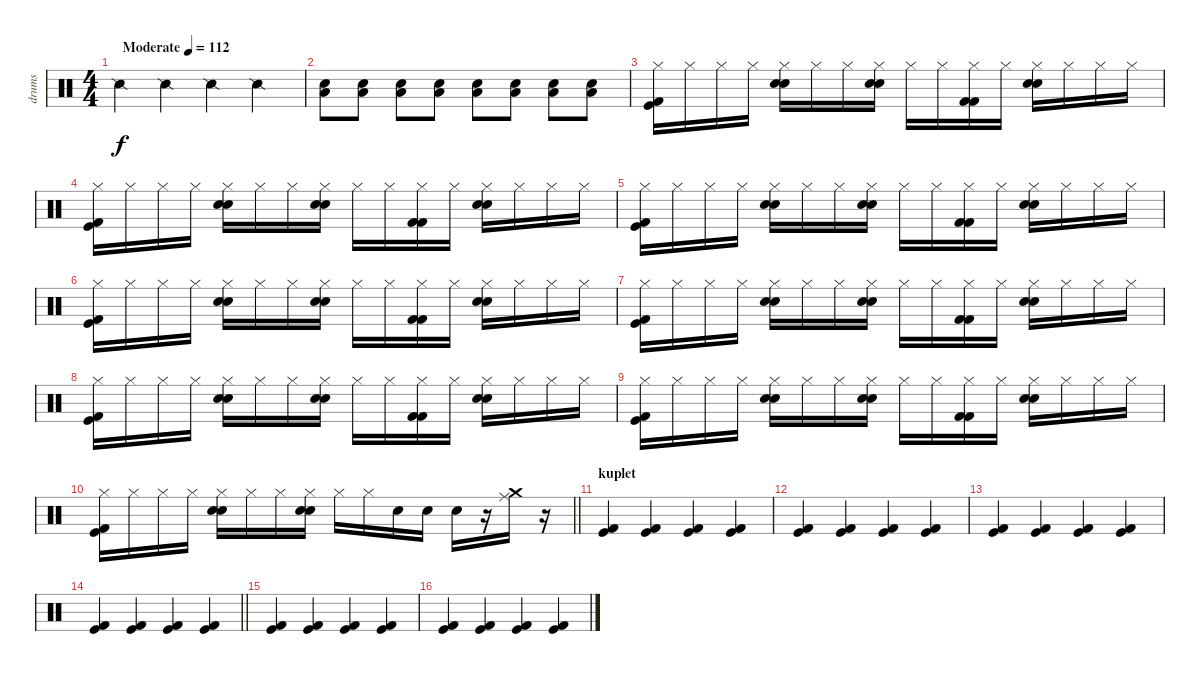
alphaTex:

\track ("drums" "drums") {instrument percussion}
\staff {score}
\articulation defaults
\ts (4 4)
\tempo (112 "Moderate")
\clef neutral
\ks c "Snare (side stick) 2".4{dy f} "Snare (side stick) 2".4 "Snare (side stick) 2".4 "Snare (side stick) 2".4
|
("Snare (hit) 2" "Low Floor Tom (hit)").8 ("Snare (hit) 2" "Low Floor Tom (hit)").8 ("Snare (hit) 2" "Low Floor Tom (hit)").8 ("Snare (hit) 2" "Low Floor Tom (hit)").8 ("Snare (hit) 2" "Low Floor Tom (hit)").8 ("Snare (hit) 2" "Low Floor Tom (hit)").8 ("Snare (hit) 2" "Low Floor Tom (hit)").8 ("Snare (hit) 2" "Low Floor Tom (hit)").8 |
("Hi-Hat (closed)" "Kick (hit) 2" "Kick (hit)").16 "Hi-Hat (closed)".16 "Hi-Hat (closed)".16 "Hi-Hat (closed)".16 ("Hi-Hat (closed)" "Snare (hit) 2" "Electric Snare (hit)").16 "Hi-Hat (closed)".16 "Hi-Hat (closed)".16 ("Hi-Hat (closed)" "Snare (hit) 2" "Electric Snare (hit)").16 "Hi-Hat (closed)".16 "Hi-Hat (closed)".16 ("Hi-Hat (closed)" "Kick (hit) 2" "Kick (hit) 2").16 "Hi-Hat (closed)".16 ("Hi-Hat (closed)" "Snare (hit) 2" "Electric Snare (hit)").16 "Hi-Hat (closed)".16 "Hi-Hat (closed)".16 "Hi-Hat (closed)".16 |
("Hi-Hat (closed)" "Kick (hit) 2" "Kick (hit)").16 "Hi-Hat (closed)".16 "Hi-Hat (closed)".16 "Hi-Hat (closed)".16 ("Hi-Hat (closed)" "Snare (hit) 2" "Electric Snare (hit)").16 "Hi-Hat (closed)".16 "Hi-Hat (closed)".16 ("Hi-Hat (closed)" "Snare (hit) 2" "Electric Snare (hit)").16 "Hi-Hat (closed)".16 "Hi-Hat (closed)".16 ("Hi-Hat (closed)" "Kick (hit) 2" "Kick (hit) 2").16 "Hi-Hat (closed)".16 ("Hi-Hat (closed)" "Snare (hit) 2" "Electric Snare (hit)").16 "Hi-Hat (closed)".16 "Hi-Hat (closed)".16 "Hi-Hat (closed)".16 |
("Hi-Hat (closed)" "Kick (hit) 2" "Kick (hit)").16 "Hi-Hat (closed)".16 "Hi-Hat (closed)".16 "Hi-Hat (closed)".16 ("Hi-Hat (closed)" "Snare (hit) 2" "Electric Snare (hit)").16 "Hi-Hat (closed)".16 "Hi-Hat (closed)".16 ("Hi-Hat (closed)" "Snare (hit) 2" "Electric Snare (hit)").16 "Hi-Hat (closed)".16 "Hi-Hat (closed)".16 ("Hi-Hat (closed)" "Kick (hit) 2" "Kick (hit) 2").16 "Hi-Hat (closed)".16 ("Hi-Hat (closed)" "Snare (hit) 2" "Electric Snare (hit)").16 "Hi-Hat (closed)".16 "Hi-Hat (closed)".16 "Hi-Hat (closed)".16 |
("Hi-Hat (closed)" "Kick (hit) 2" "Kick (hit)").16 "Hi-Hat (closed)".16 "Hi-Hat (closed)".16 "Hi-Hat (closed)".16 ("Hi-Hat (closed)" "Snare (hit) 2" "Electric Snare (hit)").16 "Hi-Hat (closed)".16 "Hi-Hat (closed)".16 ("Hi-Hat (closed)" "Snare (hit) 2" "Electric Snare (hit)").16 "Hi-Hat (closed)".16 "Hi-Hat (closed)".16 ("Hi-Hat (closed)" "Kick (hit) 2" "Kick (hit) 2").16 "Hi-Hat (closed)".16 ("Hi-Hat (closed)" "Snare (hit) 2" "Electric Snare (hit)").16 "Hi-Hat (closed)".16 "Hi-Hat (closed)".16 "Hi-Hat (closed)".16 |
("Hi-Hat (closed)" "Kick (hit) 2" "Kick (hit)").16 "Hi-Hat (closed)".16 "Hi-Hat (closed)".16 "Hi-Hat (closed)".16 ("Hi-Hat (closed)" "Snare (hit) 2" "Electric Snare (hit)").16 "Hi-Hat (closed)".16 "Hi-Hat (closed)".16 ("Hi-Hat (closed)" "Snare (hit) 2" "Electric Snare (hit)").16 "Hi-Hat (closed)".16 "Hi-Hat (closed)".16 ("Hi-Hat (closed)" "Kick (hit) 2" "Kick (hit) 2").16 "Hi-Hat (closed)".16 ("Hi-Hat (closed)" "Snare (hit) 2" "Electric Snare (hit)").16 "Hi-Hat (closed)".16 "Hi-Hat (closed)".16 "Hi-Hat (closed)".16 |
("Hi-Hat (closed)" "Kick (hit) 2" "Kick (hit)").16 "Hi-Hat (closed)".16 "Hi-Hat (closed)".16 "Hi-Hat (closed)".16 ("Hi-Hat (closed)" "Snare (hit) 2" "Electric Snare (hit)").16 "Hi-Hat (closed)".16 "Hi-Hat (closed)".16 ("Hi-Hat (closed)" "Snare (hit) 2" "Electric Snare (hit)").16 "Hi-Hat (closed)".16 "Hi-Hat (closed)".16 ("Hi-Hat (closed)" "Kick (hit) 2" "Kick (hit) 2").16 "Hi-Hat (closed)".16 ("Hi-Hat (closed)" "Snare (hit) 2" "Electric Snare (hit)").16 "Hi-Hat (closed)".16 "Hi-Hat (closed)".16 "Hi-Hat (closed)".16 |
("Hi-Hat (closed)" "Kick (hit) 2" "Kick (hit)").16 "Hi-Hat (closed)".16 "Hi-Hat (closed)".16 "Hi-Hat (closed)".16 ("Hi-Hat (closed)" "Snare (hit) 2" "Electric Snare (hit)").16 "Hi-Hat (closed)".16 "Hi-Hat (closed)".16 ("Hi-Hat (closed)" "Snare (hit) 2" "Electric Snare (hit)").16 "Hi-Hat (closed)".16 "Hi-Hat (closed)".16 ("Hi-Hat (closed)" "Kick (hit) 2" "Kick (hit) 2").16 "Hi-Hat (closed)".16 ("Hi-Hat (closed)" "Snare (hit) 2" "Electric Snare (hit)").16 "Hi-Hat (closed)".16 "Hi-Hat (closed)".16 "Hi-Hat (closed)".16 |
\barLineRight lightlight
("Hi-Hat (closed)" "Kick (hit) 2" "Kick (hit)").16 "Hi-Hat (closed)".16 "Hi-Hat (closed)".16 "Hi-Hat (closed)".16 ("Hi-Hat (closed)" "Snare (hit) 2" "Electric Snare (hit)").16 "Hi-Hat (closed)".16 "Hi-Hat (closed)".16 ("Hi-Hat (closed)" "Snare (hit) 2" "Electric Snare (hit)").16 "Hi-Hat (closed)".16 "Hi-Hat (closed)".16 "Snare (hit) 2".16 "Snare (hit) 2".16 "Snare (hit) 2".16 r.16 ("Ride (middle)" "Crash medium (hit)").16 r.16 |
\section ("" "kuplet")
("Kick (hit)" "Kick (hit) 2").4 ("Kick (hit)" "Kick (hit) 2").4 ("Kick (hit)" "Kick (hit) 2").4 ("Kick (hit)" "Kick (hit) 2").4 |
("Kick (hit)" "Kick (hit) 2").4 ("Kick (hit)" "Kick (hit) 2").4 ("Kick (hit)" "Kick (hit) 2").4 ("Kick (hit)" "Kick (hit) 2").4 |
("Kick (hit)" "Kick (hit) 2").4 ("Kick (hit)" "Kick (hit) 2").4 ("Kick (hit)" "Kick (hit) 2").4 ("Kick (hit)" "Kick (hit) 2").4 |
\barLineRight lightlight
("Kick (hit)" "Kick (hit) 2").4 ("Kick (hit)" "Kick (hit) 2").4 ("Kick (hit)" "Kick (hit) 2").4 ("Kick (hit)" "Kick (hit) 2").4 |
("Kick (hit)" "Kick (hit) 2").4 ("Kick (hit)" "Kick (hit) 2").4 ("Kick (hit)" "Kick (hit) 2").4 ("Kick (hit)" "Kick (hit) 2").4 |
("Kick (hit)" "Kick (hit) 2").4 ("Kick (hit)" "Kick (hit) 2").4 ("Kick (hit)" "Kick (hit) 2").4 ("Kick (hit)" "Kick (hit) 2").4
